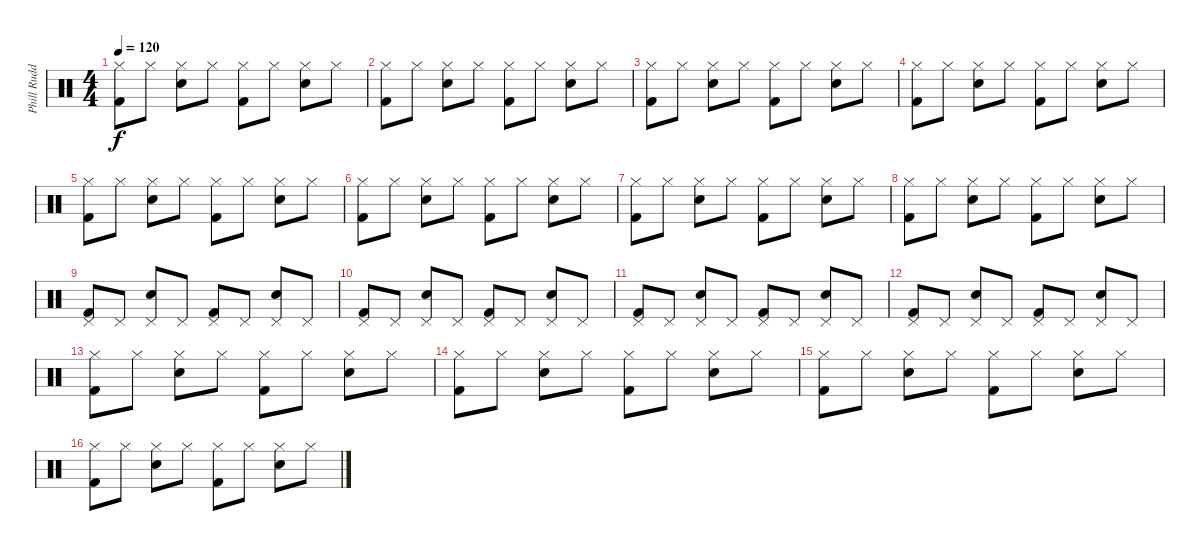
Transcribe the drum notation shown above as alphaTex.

\track ("Phill Rudd" "Phill Rudd") {instrument percussion}
\staff {score}
\articulation defaults
\ts (4 4)
\tempo 120
\clef neutral
\ks c
("Hi-Hat (closed)" "Kick (hit) 2").8{dy f} "Hi-Hat (closed)".8 ("Hi-Hat (closed)" "Electric Snare (hit)").8 "Hi-Hat (closed)".8 ("Hi-Hat (closed)" "Kick (hit) 2").8 "Hi-Hat (closed)".8 ("Hi-Hat (closed)" "Electric Snare (hit)").8 "Hi-Hat (closed)".8 |
("Hi-Hat (closed)" "Kick (hit) 2").8 "Hi-Hat (closed)".8 ("Hi-Hat (closed)" "Electric Snare (hit)").8 "Hi-Hat (closed)".8 ("Hi-Hat (closed)" "Kick (hit) 2").8 "Hi-Hat (closed)".8 ("Hi-Hat (closed)" "Electric Snare (hit)").8 "Hi-Hat (closed)".8 |
("Hi-Hat (closed)" "Kick (hit) 2").8 "Hi-Hat (closed)".8 ("Hi-Hat (closed)" "Electric Snare (hit)").8 "Hi-Hat (closed)".8 ("Hi-Hat (closed)" "Kick (hit) 2").8 "Hi-Hat (closed)".8 ("Hi-Hat (closed)" "Electric Snare (hit)").8 "Hi-Hat (closed)".8 |
("Hi-Hat (closed)" "Kick (hit) 2").8 "Hi-Hat (closed)".8 ("Hi-Hat (closed)" "Electric Snare (hit)").8 "Hi-Hat (closed)".8 ("Hi-Hat (closed)" "Kick (hit) 2").8 "Hi-Hat (closed)".8 ("Hi-Hat (closed)" "Electric Snare (hit)").8 "Hi-Hat (closed)".8 |
("Hi-Hat (closed)" "Kick (hit) 2").8 "Hi-Hat (closed)".8 ("Hi-Hat (closed)" "Electric Snare (hit)").8 "Hi-Hat (closed)".8 ("Hi-Hat (closed)" "Kick (hit) 2").8 "Hi-Hat (closed)".8 ("Hi-Hat (closed)" "Electric Snare (hit)").8 "Hi-Hat (closed)".8 |
("Hi-Hat (closed)" "Kick (hit) 2").8 "Hi-Hat (closed)".8 ("Hi-Hat (closed)" "Electric Snare (hit)").8 "Hi-Hat (closed)".8 ("Hi-Hat (closed)" "Kick (hit) 2").8 "Hi-Hat (closed)".8 ("Hi-Hat (closed)" "Electric Snare (hit)").8 "Hi-Hat (closed)".8 |
("Hi-Hat (closed)" "Kick (hit) 2").8 "Hi-Hat (closed)".8 ("Hi-Hat (closed)" "Electric Snare (hit)").8 "Hi-Hat (closed)".8 ("Hi-Hat (closed)" "Kick (hit) 2").8 "Hi-Hat (closed)".8 ("Hi-Hat (closed)" "Electric Snare (hit)").8 "Hi-Hat (closed)".8 |
("Hi-Hat (closed)" "Kick (hit) 2").8 "Hi-Hat (closed)".8 ("Hi-Hat (closed)" "Electric Snare (hit)").8 "Hi-Hat (closed)".8 ("Hi-Hat (closed)" "Kick (hit) 2").8 "Hi-Hat (closed)".8 ("Hi-Hat (closed)" "Electric Snare (hit)").8 "Hi-Hat (closed)".8 |
("Pedal Hi-Hat (hit)" "Kick (hit) 2").8 "Pedal Hi-Hat (hit)".8 ("Pedal Hi-Hat (hit)" "Electric Snare (hit)").8 "Pedal Hi-Hat (hit)".8 ("Pedal Hi-Hat (hit)" "Kick (hit) 2").8 "Pedal Hi-Hat (hit)".8 ("Pedal Hi-Hat (hit)" "Electric Snare (hit)").8 "Pedal Hi-Hat (hit)".8 |
("Pedal Hi-Hat (hit)" "Kick (hit) 2").8 "Pedal Hi-Hat (hit)".8 ("Pedal Hi-Hat (hit)" "Electric Snare (hit)").8 "Pedal Hi-Hat (hit)".8 ("Pedal Hi-Hat (hit)" "Kick (hit) 2").8 "Pedal Hi-Hat (hit)".8 ("Pedal Hi-Hat (hit)" "Electric Snare (hit)").8 "Pedal Hi-Hat (hit)".8 |
("Pedal Hi-Hat (hit)" "Kick (hit) 2").8 "Pedal Hi-Hat (hit)".8 ("Pedal Hi-Hat (hit)" "Electric Snare (hit)").8 "Pedal Hi-Hat (hit)".8 ("Pedal Hi-Hat (hit)" "Kick (hit) 2").8 "Pedal Hi-Hat (hit)".8 ("Pedal Hi-Hat (hit)" "Electric Snare (hit)").8 "Pedal Hi-Hat (hit)".8 |
("Pedal Hi-Hat (hit)" "Kick (hit) 2").8 "Pedal Hi-Hat (hit)".8 ("Pedal Hi-Hat (hit)" "Electric Snare (hit)").8 "Pedal Hi-Hat (hit)".8 ("Pedal Hi-Hat (hit)" "Kick (hit) 2").8 "Pedal Hi-Hat (hit)".8 ("Pedal Hi-Hat (hit)" "Electric Snare (hit)").8 "Pedal Hi-Hat (hit)".8 |
("Hi-Hat (closed)" "Kick (hit) 2").8 "Hi-Hat (closed)".8 ("Hi-Hat (closed)" "Electric Snare (hit)").8 "Hi-Hat (closed)".8 ("Hi-Hat (closed)" "Kick (hit) 2").8 "Hi-Hat (closed)".8 ("Hi-Hat (closed)" "Electric Snare (hit)").8 "Hi-Hat (closed)".8 |
("Hi-Hat (closed)" "Kick (hit) 2").8 "Hi-Hat (closed)".8 ("Hi-Hat (closed)" "Electric Snare (hit)").8 "Hi-Hat (closed)".8 ("Hi-Hat (closed)" "Kick (hit) 2").8 "Hi-Hat (closed)".8 ("Hi-Hat (closed)" "Electric Snare (hit)").8 "Hi-Hat (closed)".8 |
("Hi-Hat (closed)" "Kick (hit) 2").8 "Hi-Hat (closed)".8 ("Hi-Hat (closed)" "Electric Snare (hit)").8 "Hi-Hat (closed)".8 ("Hi-Hat (closed)" "Kick (hit) 2").8 "Hi-Hat (closed)".8 ("Hi-Hat (closed)" "Electric Snare (hit)").8 "Hi-Hat (closed)".8 |
("Hi-Hat (closed)" "Kick (hit) 2").8 "Hi-Hat (closed)".8 ("Hi-Hat (closed)" "Electric Snare (hit)").8 "Hi-Hat (closed)".8 ("Hi-Hat (closed)" "Kick (hit) 2").8 "Hi-Hat (closed)".8 ("Hi-Hat (closed)" "Electric Snare (hit)").8 "Hi-Hat (closed)".8
